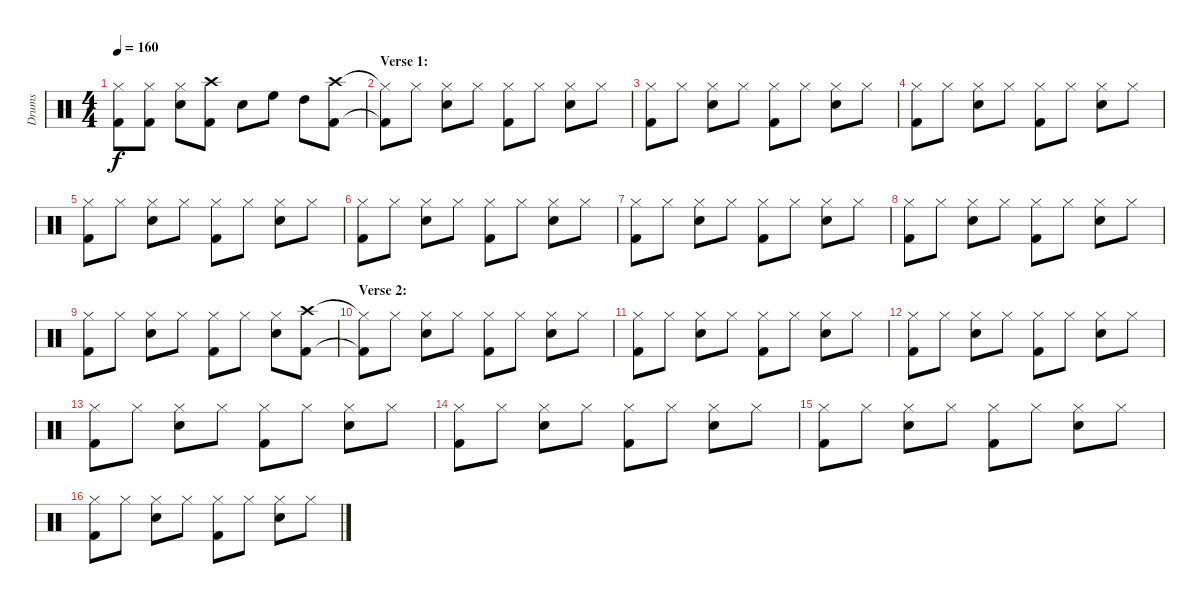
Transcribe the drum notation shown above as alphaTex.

\track ("Drums" "Drums") {instrument percussion}
\staff {score}
\articulation defaults
\ts (4 4)
\tempo 160
\clef neutral
\ks c
("Hi-Hat (closed)"{t} "Kick (hit) 2"{t}).8{dy f} ("Hi-Hat (closed)" "Kick (hit) 2").8 ("Hi-Hat (closed)" "Electric Snare (hit)").8 ("Crash high (hit)" "Kick (hit) 2").8 "Electric Snare (hit)".8 "High Floor Tom (hit)".8 "High Tom (hit)".8 ("Crash high (hit)" "Kick (hit) 2").8 |
\section ("" "Verse 1:")
("Hi-Hat (closed)"{t} "Kick (hit) 2"{t}).8 "Hi-Hat (closed)".8 ("Hi-Hat (closed)" "Electric Snare (hit)").8 "Hi-Hat (closed)".8 ("Hi-Hat (closed)" "Kick (hit) 2").8 "Hi-Hat (closed)".8 ("Hi-Hat (closed)" "Electric Snare (hit)").8 "Hi-Hat (closed)".8 |
("Hi-Hat (closed)" "Kick (hit) 2").8 "Hi-Hat (closed)".8 ("Hi-Hat (closed)" "Electric Snare (hit)").8 "Hi-Hat (closed)".8 ("Hi-Hat (closed)" "Kick (hit) 2").8 "Hi-Hat (closed)".8 ("Hi-Hat (closed)" "Electric Snare (hit)").8 "Hi-Hat (closed)".8 |
("Hi-Hat (closed)" "Kick (hit) 2").8 "Hi-Hat (closed)".8 ("Hi-Hat (closed)" "Electric Snare (hit)").8 "Hi-Hat (closed)".8 ("Hi-Hat (closed)" "Kick (hit) 2").8 "Hi-Hat (closed)".8 ("Hi-Hat (closed)" "Electric Snare (hit)").8 "Hi-Hat (closed)".8 |
("Hi-Hat (closed)" "Kick (hit) 2").8 "Hi-Hat (closed)".8 ("Hi-Hat (closed)" "Electric Snare (hit)").8 "Hi-Hat (closed)".8 ("Hi-Hat (closed)" "Kick (hit) 2").8 "Hi-Hat (closed)".8 ("Hi-Hat (closed)" "Electric Snare (hit)").8 "Hi-Hat (closed)".8 |
("Hi-Hat (closed)" "Kick (hit) 2").8 "Hi-Hat (closed)".8 ("Hi-Hat (closed)" "Electric Snare (hit)").8 "Hi-Hat (closed)".8 ("Hi-Hat (closed)" "Kick (hit) 2").8 "Hi-Hat (closed)".8 ("Hi-Hat (closed)" "Electric Snare (hit)").8 "Hi-Hat (closed)".8 |
("Hi-Hat (closed)" "Kick (hit) 2").8 "Hi-Hat (closed)".8 ("Hi-Hat (closed)" "Electric Snare (hit)").8 "Hi-Hat (closed)".8 ("Hi-Hat (closed)" "Kick (hit) 2").8 "Hi-Hat (closed)".8 ("Hi-Hat (closed)" "Electric Snare (hit)").8 "Hi-Hat (closed)".8 |
("Hi-Hat (closed)" "Kick (hit) 2").8 "Hi-Hat (closed)".8 ("Hi-Hat (closed)" "Electric Snare (hit)").8 "Hi-Hat (closed)".8 ("Hi-Hat (closed)" "Kick (hit) 2").8 "Hi-Hat (closed)".8 ("Hi-Hat (closed)" "Electric Snare (hit)").8 "Hi-Hat (closed)".8 |
("Hi-Hat (closed)" "Kick (hit) 2").8 "Hi-Hat (closed)".8 ("Hi-Hat (closed)" "Electric Snare (hit)").8 "Hi-Hat (closed)".8 ("Hi-Hat (closed)" "Kick (hit) 2").8 "Hi-Hat (closed)".8 ("Hi-Hat (closed)" "Electric Snare (hit)").8 ("Crash high (hit)" "Kick (hit) 2").8 |
\section ("" "Verse 2:")
("Hi-Hat (closed)"{t} "Kick (hit) 2"{t}).8 "Hi-Hat (closed)".8 ("Hi-Hat (closed)" "Electric Snare (hit)").8 "Hi-Hat (closed)".8 ("Hi-Hat (closed)" "Kick (hit) 2").8 "Hi-Hat (closed)".8 ("Hi-Hat (closed)" "Electric Snare (hit)").8 "Hi-Hat (closed)".8 |
("Hi-Hat (closed)" "Kick (hit) 2").8 "Hi-Hat (closed)".8 ("Hi-Hat (closed)" "Electric Snare (hit)").8 "Hi-Hat (closed)".8 ("Hi-Hat (closed)" "Kick (hit) 2").8 "Hi-Hat (closed)".8 ("Hi-Hat (closed)" "Electric Snare (hit)").8 "Hi-Hat (closed)".8 |
("Hi-Hat (closed)" "Kick (hit) 2").8 "Hi-Hat (closed)".8 ("Hi-Hat (closed)" "Electric Snare (hit)").8 "Hi-Hat (closed)".8 ("Hi-Hat (closed)" "Kick (hit) 2").8 "Hi-Hat (closed)".8 ("Hi-Hat (closed)" "Electric Snare (hit)").8 "Hi-Hat (closed)".8 |
("Hi-Hat (closed)" "Kick (hit) 2").8 "Hi-Hat (closed)".8 ("Hi-Hat (closed)" "Electric Snare (hit)").8 "Hi-Hat (closed)".8 ("Hi-Hat (closed)" "Kick (hit) 2").8 "Hi-Hat (closed)".8 ("Hi-Hat (closed)" "Electric Snare (hit)").8 "Hi-Hat (closed)".8 |
("Hi-Hat (closed)" "Kick (hit) 2").8 "Hi-Hat (closed)".8 ("Hi-Hat (closed)" "Electric Snare (hit)").8 "Hi-Hat (closed)".8 ("Hi-Hat (closed)" "Kick (hit) 2").8 "Hi-Hat (closed)".8 ("Hi-Hat (closed)" "Electric Snare (hit)").8 "Hi-Hat (closed)".8 |
("Hi-Hat (closed)" "Kick (hit) 2").8 "Hi-Hat (closed)".8 ("Hi-Hat (closed)" "Electric Snare (hit)").8 "Hi-Hat (closed)".8 ("Hi-Hat (closed)" "Kick (hit) 2").8 "Hi-Hat (closed)".8 ("Hi-Hat (closed)" "Electric Snare (hit)").8 "Hi-Hat (closed)".8 |
("Hi-Hat (closed)" "Kick (hit) 2").8 "Hi-Hat (closed)".8 ("Hi-Hat (closed)" "Electric Snare (hit)").8 "Hi-Hat (closed)".8 ("Hi-Hat (closed)" "Kick (hit) 2").8 "Hi-Hat (closed)".8 ("Hi-Hat (closed)" "Electric Snare (hit)").8 "Hi-Hat (closed)".8
